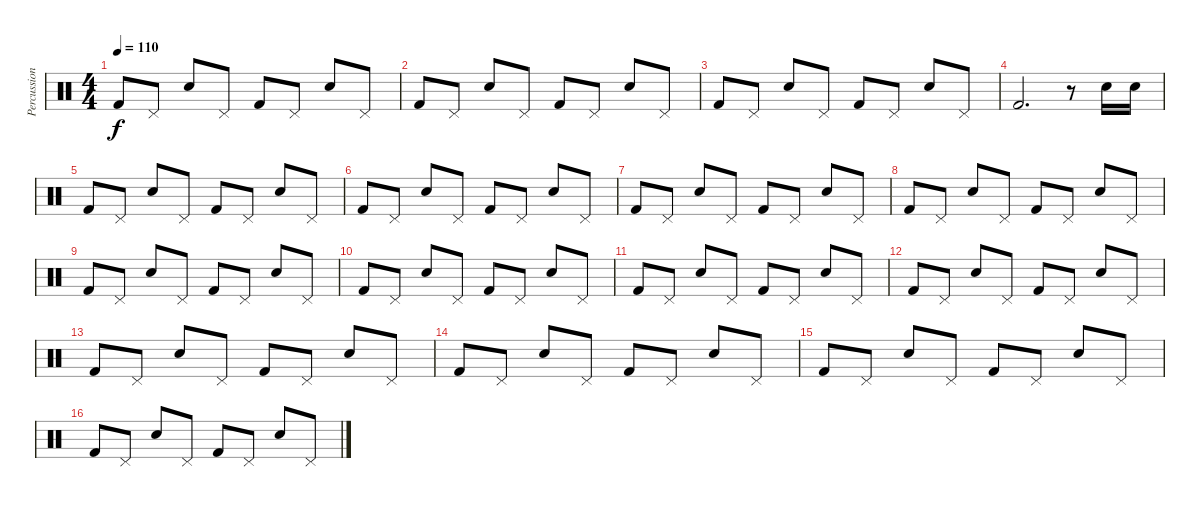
\track ("Percussion" "Percussion") {instrument percussion}
\staff {score}
\articulation defaults
\ts (4 4)
\tempo 110
\clef neutral
\ks c "Kick (hit) 2".8{dy f} "Pedal Hi-Hat (hit)".8 "Snare (hit) 2".8 "Pedal Hi-Hat (hit)".8 "Kick (hit) 2".8 "Pedal Hi-Hat (hit)".8 "Snare (hit) 2".8 "Pedal Hi-Hat (hit)".8
|
"Kick (hit) 2".8 "Pedal Hi-Hat (hit)".8 "Snare (hit) 2".8 "Pedal Hi-Hat (hit)".8 "Kick (hit) 2".8 "Pedal Hi-Hat (hit)".8 "Snare (hit) 2".8 "Pedal Hi-Hat (hit)".8 |
"Kick (hit) 2".8 "Pedal Hi-Hat (hit)".8 "Snare (hit) 2".8 "Pedal Hi-Hat (hit)".8 "Kick (hit) 2".8 "Pedal Hi-Hat (hit)".8 "Snare (hit) 2".8 "Pedal Hi-Hat (hit)".8 |
"Kick (hit) 2".2{d} r.8 "Snare (hit) 2".16 "Snare (hit) 2".16 |
"Kick (hit) 2".8 "Pedal Hi-Hat (hit)".8 "Snare (hit) 2".8 "Pedal Hi-Hat (hit)".8 "Kick (hit) 2".8 "Pedal Hi-Hat (hit)".8 "Snare (hit) 2".8 "Pedal Hi-Hat (hit)".8 |
"Kick (hit) 2".8 "Pedal Hi-Hat (hit)".8 "Snare (hit) 2".8 "Pedal Hi-Hat (hit)".8 "Kick (hit) 2".8 "Pedal Hi-Hat (hit)".8 "Snare (hit) 2".8 "Pedal Hi-Hat (hit)".8 |
"Kick (hit) 2".8 "Pedal Hi-Hat (hit)".8 "Snare (hit) 2".8 "Pedal Hi-Hat (hit)".8 "Kick (hit) 2".8 "Pedal Hi-Hat (hit)".8 "Snare (hit) 2".8 "Pedal Hi-Hat (hit)".8 |
"Kick (hit) 2".8 "Pedal Hi-Hat (hit)".8 "Snare (hit) 2".8 "Pedal Hi-Hat (hit)".8 "Kick (hit) 2".8 "Pedal Hi-Hat (hit)".8 "Snare (hit) 2".8 "Pedal Hi-Hat (hit)".8 |
"Kick (hit) 2".8 "Pedal Hi-Hat (hit)".8 "Snare (hit) 2".8 "Pedal Hi-Hat (hit)".8 "Kick (hit) 2".8 "Pedal Hi-Hat (hit)".8 "Snare (hit) 2".8 "Pedal Hi-Hat (hit)".8 |
"Kick (hit) 2".8 "Pedal Hi-Hat (hit)".8 "Snare (hit) 2".8 "Pedal Hi-Hat (hit)".8 "Kick (hit) 2".8 "Pedal Hi-Hat (hit)".8 "Snare (hit) 2".8 "Pedal Hi-Hat (hit)".8 |
"Kick (hit) 2".8 "Pedal Hi-Hat (hit)".8 "Snare (hit) 2".8 "Pedal Hi-Hat (hit)".8 "Kick (hit) 2".8 "Pedal Hi-Hat (hit)".8 "Snare (hit) 2".8 "Pedal Hi-Hat (hit)".8 |
"Kick (hit) 2".8 "Pedal Hi-Hat (hit)".8 "Snare (hit) 2".8 "Pedal Hi-Hat (hit)".8 "Kick (hit) 2".8 "Pedal Hi-Hat (hit)".8 "Snare (hit) 2".8 "Pedal Hi-Hat (hit)".8 |
"Kick (hit) 2".8 "Pedal Hi-Hat (hit)".8 "Snare (hit) 2".8 "Pedal Hi-Hat (hit)".8 "Kick (hit) 2".8 "Pedal Hi-Hat (hit)".8 "Snare (hit) 2".8 "Pedal Hi-Hat (hit)".8 |
"Kick (hit) 2".8 "Pedal Hi-Hat (hit)".8 "Snare (hit) 2".8 "Pedal Hi-Hat (hit)".8 "Kick (hit) 2".8 "Pedal Hi-Hat (hit)".8 "Snare (hit) 2".8 "Pedal Hi-Hat (hit)".8 |
"Kick (hit) 2".8 "Pedal Hi-Hat (hit)".8 "Snare (hit) 2".8 "Pedal Hi-Hat (hit)".8 "Kick (hit) 2".8 "Pedal Hi-Hat (hit)".8 "Snare (hit) 2".8 "Pedal Hi-Hat (hit)".8 |
"Kick (hit) 2".8 "Pedal Hi-Hat (hit)".8 "Snare (hit) 2".8 "Pedal Hi-Hat (hit)".8 "Kick (hit) 2".8 "Pedal Hi-Hat (hit)".8 "Snare (hit) 2".8 "Pedal Hi-Hat (hit)".8
